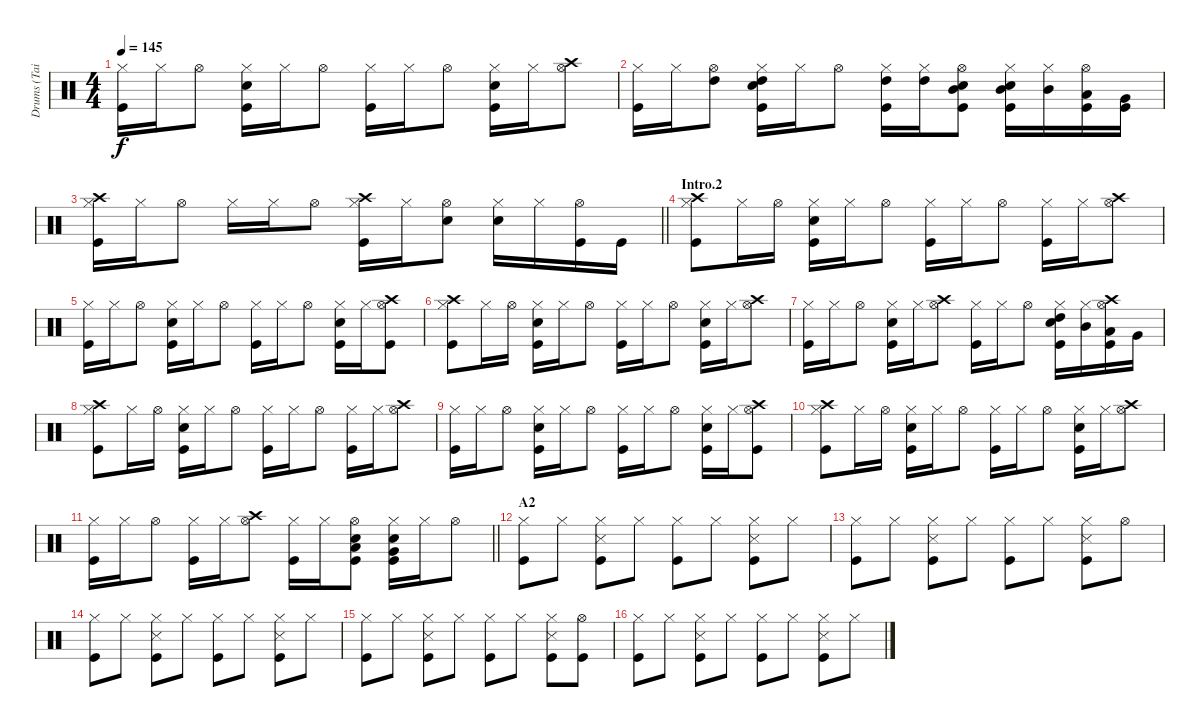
\track ("Drums (Tainaka Ritsu)" "Drums (Tai") {instrument percussion}
\staff {score}
\articulation defaults
\ts (4 4)
\tempo 145
\clef neutral
\ks c
("Hi-Hat (closed)" "Kick (hit)").16{dy f} "Hi-Hat (closed)".16 "Hi-Hat (open)".8 ("Hi-Hat (closed)" "Snare (hit) 2" "Kick (hit)").16 "Hi-Hat (closed)".16 "Hi-Hat (open)".8 ("Hi-Hat (closed)" "Kick (hit)").16 "Hi-Hat (closed)".16 "Hi-Hat (open)".8 ("Hi-Hat (closed)" "Snare (hit) 2" "Kick (hit)").16 "Hi-Hat (closed)".16 ("Hi-Hat (open)" "Crash high (hit)").8 |
("Hi-Hat (closed)" "Kick (hit)").16 "Hi-Hat (closed)".16 ("Hi-Hat (open)" "High Tom (hit)").8 ("Hi-Hat (closed)" "Snare (hit) 2" "High Tom (hit)" "Kick (hit)").16 "Hi-Hat (closed)".16 "Hi-Hat (open)".8 ("Hi-Hat (closed)" "High Tom (hit)" "Kick (hit)").16 ("Hi-Hat (closed)" "High Tom (hit)").16 ("Hi-Hat (open)" "Snare (hit) 2" "Mid Tom (hit)" "Kick (hit)").8 ("Hi-Hat (closed)" "Snare (hit) 2" "Mid Tom (hit)" "Kick (hit)").16 ("Hi-Hat (closed)" "Mid Tom (hit)").16 ("Hi-Hat (open)" "Low Tom (hit)" "Kick (hit)").16 ("Very Low Tom (hit)" "Kick (hit)").16 |
\barLineRight lightlight
("Crash high (hit)" "Hi-Hat (closed)" "Kick (hit)").16 "Hi-Hat (closed)".16 "Hi-Hat (open)".8 "Hi-Hat (closed)".16 "Hi-Hat (closed)".16 "Hi-Hat (open)".8 ("Crash high (hit)" "Hi-Hat (closed)" "Kick (hit)").16 "Hi-Hat (closed)".16 ("Hi-Hat (open)" "Snare (hit) 2").8 ("Hi-Hat (closed)" "Snare (hit) 2").16 "Hi-Hat (closed)".16 ("Hi-Hat (open)" "Kick (hit)").16 "Kick (hit)".16 |
\section ("" "Intro.2")
("Crash high (hit)" "Hi-Hat (closed)" "Kick (hit)").8 "Hi-Hat (closed)".16 "Hi-Hat (open)".16 ("Hi-Hat (closed)" "Snare (hit) 2" "Kick (hit)").16 "Hi-Hat (closed)".16 "Hi-Hat (open)".8 ("Hi-Hat (closed)" "Kick (hit)").16 "Hi-Hat (closed)".16 "Hi-Hat (open)".8 ("Hi-Hat (closed)" "Kick (hit)").16 "Hi-Hat (closed)".16 ("Crash high (hit)" "Hi-Hat (open)").8 |
("Hi-Hat (closed)" "Kick (hit)").16 "Hi-Hat (closed)".16 "Hi-Hat (open)".8 ("Hi-Hat (closed)" "Snare (hit) 2" "Kick (hit)").16 "Hi-Hat (closed)".16 "Hi-Hat (open)".8 ("Hi-Hat (closed)" "Kick (hit)").16 "Hi-Hat (closed)".16 "Hi-Hat (open)".8 ("Hi-Hat (closed)" "Snare (hit) 2" "Kick (hit)").16 "Hi-Hat (closed)".16 ("Crash high (hit)" "Hi-Hat (open)" "Kick (hit)").8 |
("Crash high (hit)" "Hi-Hat (closed)" "Kick (hit)").8 "Hi-Hat (closed)".16 "Hi-Hat (open)".16 ("Hi-Hat (closed)" "Snare (hit) 2" "Kick (hit)").16 "Hi-Hat (closed)".16 "Hi-Hat (open)".8 ("Hi-Hat (closed)" "Kick (hit)").16 "Hi-Hat (closed)".16 "Hi-Hat (open)".8 ("Hi-Hat (closed)" "Snare (hit) 2" "Kick (hit)").16 "Hi-Hat (closed)".16 ("Crash high (hit)" "Hi-Hat (open)").8 |
("Hi-Hat (closed)" "Kick (hit)").16 "Hi-Hat (closed)".16 "Hi-Hat (open)".8 ("Hi-Hat (closed)" "Snare (hit) 2" "Kick (hit)").16 "Hi-Hat (closed)".16 ("Crash high (hit)" "Hi-Hat (open)").8 ("Hi-Hat (closed)" "Kick (hit)").16 "Hi-Hat (closed)".16 "Hi-Hat (open)".8 ("Hi-Hat (closed)" "Snare (hit) 2" "High Tom (hit)" "Kick (hit)").16 ("Hi-Hat (closed)" "Mid Tom (hit)").16 ("Crash high (hit)" "Hi-Hat (open)" "Low Tom (hit)" "Kick (hit)").16 "Very Low Tom (hit)".16 |
("Crash high (hit)" "Hi-Hat (closed)" "Kick (hit)").8 "Hi-Hat (closed)".16 "Hi-Hat (open)".16 ("Hi-Hat (closed)" "Snare (hit) 2" "Kick (hit)").16 "Hi-Hat (closed)".16 "Hi-Hat (open)".8 ("Hi-Hat (closed)" "Kick (hit)").16 "Hi-Hat (closed)".16 "Hi-Hat (open)".8 ("Hi-Hat (closed)" "Kick (hit)").16 "Hi-Hat (closed)".16 ("Crash high (hit)" "Hi-Hat (open)").8 |
("Hi-Hat (closed)" "Kick (hit)").16 "Hi-Hat (closed)".16 "Hi-Hat (open)".8 ("Hi-Hat (closed)" "Snare (hit) 2" "Kick (hit)").16 "Hi-Hat (closed)".16 "Hi-Hat (open)".8 ("Hi-Hat (closed)" "Kick (hit)").16 "Hi-Hat (closed)".16 "Hi-Hat (open)".8 ("Hi-Hat (closed)" "Snare (hit) 2" "Kick (hit)").16 "Hi-Hat (closed)".16 ("Crash high (hit)" "Hi-Hat (open)" "Kick (hit)").8 |
("Crash high (hit)" "Hi-Hat (closed)" "Kick (hit)").8 "Hi-Hat (closed)".16 "Hi-Hat (open)".16 ("Hi-Hat (closed)" "Snare (hit) 2" "Kick (hit)").16 "Hi-Hat (closed)".16 "Hi-Hat (open)".8 ("Hi-Hat (closed)" "Kick (hit)").16 "Hi-Hat (closed)".16 "Hi-Hat (open)".8 ("Hi-Hat (closed)" "Snare (hit) 2" "Kick (hit)").16 "Hi-Hat (closed)".16 ("Crash high (hit)" "Hi-Hat (open)").8 |
\barLineRight lightlight
("Hi-Hat (closed)" "Kick (hit)").16 "Hi-Hat (closed)".16 "Hi-Hat (open)".8 ("Hi-Hat (closed)" "Kick (hit)").16 "Hi-Hat (closed)".16 ("Crash high (hit)" "Hi-Hat (open)").8 ("Hi-Hat (closed)" "Kick (hit)").16 "Hi-Hat (closed)".16 ("Hi-Hat (open)" "Snare (hit) 2" "Low Tom (hit)" "Kick (hit)").8 ("Hi-Hat (closed)" "Snare (hit) 2" "Very Low Tom (hit)" "Kick (hit)").16 "Hi-Hat (closed)".16 "Hi-Hat (open)".8 |
\section ("" "A2")
("Hi-Hat (closed)" "Kick (hit)").8 "Hi-Hat (closed)".8 ("Hi-Hat (closed)" "Snare (side stick) 3" "Kick (hit)").8 "Hi-Hat (closed)".8 ("Hi-Hat (closed)" "Kick (hit)").8 "Hi-Hat (closed)".8 ("Hi-Hat (closed)" "Snare (side stick) 3" "Kick (hit)").8 "Hi-Hat (closed)".8 |
("Hi-Hat (closed)" "Kick (hit)").8 "Hi-Hat (closed)".8 ("Hi-Hat (closed)" "Snare (side stick) 3" "Kick (hit)").8 "Hi-Hat (closed)".8 ("Hi-Hat (closed)" "Kick (hit)").8 "Hi-Hat (closed)".8 ("Hi-Hat (closed)" "Snare (side stick) 3" "Kick (hit)").8 "Hi-Hat (open)".8 |
("Hi-Hat (closed)" "Kick (hit)").8 "Hi-Hat (closed)".8 ("Hi-Hat (closed)" "Snare (side stick) 3" "Kick (hit)").8 "Hi-Hat (closed)".8 ("Hi-Hat (closed)" "Kick (hit)").8 "Hi-Hat (closed)".8 ("Hi-Hat (closed)" "Snare (side stick) 3" "Kick (hit)").8 "Hi-Hat (closed)".8 |
("Hi-Hat (closed)" "Kick (hit)").8 "Hi-Hat (closed)".8 ("Hi-Hat (closed)" "Snare (side stick) 3" "Kick (hit)").8 "Hi-Hat (closed)".8 ("Hi-Hat (closed)" "Kick (hit)").8 "Hi-Hat (closed)".8 ("Hi-Hat (closed)" "Snare (side stick) 3" "Kick (hit)").8 ("Hi-Hat (open)" "Kick (hit)").8 |
("Hi-Hat (closed)" "Kick (hit)").8 "Hi-Hat (closed)".8 ("Hi-Hat (closed)" "Snare (side stick) 3" "Kick (hit)").8 "Hi-Hat (closed)".8 ("Hi-Hat (closed)" "Kick (hit)").8 "Hi-Hat (closed)".8 ("Hi-Hat (closed)" "Snare (side stick) 3" "Kick (hit)").8 "Hi-Hat (closed)".8
